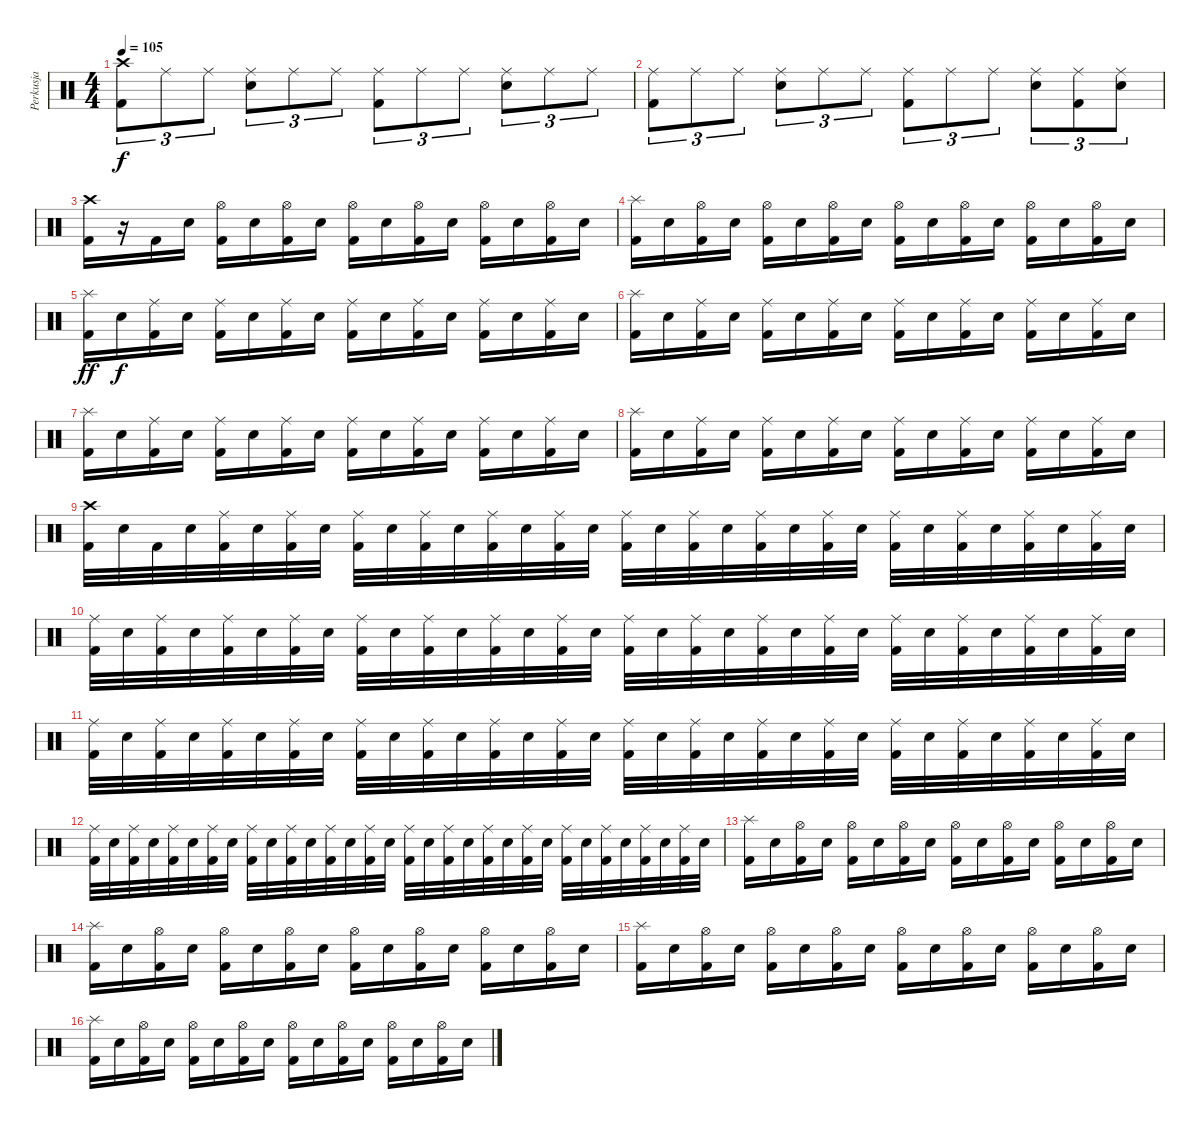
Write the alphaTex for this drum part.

\track ("Perkusja" "Perkusja") {instrument percussion}
\staff {score}
\articulation defaults
\ts (4 4)
\tempo 105
\clef neutral
\ks c
("Crash high (hit)" "Kick (hit) 2").8{tu (3 2) dy f} "Ride (middle)".8{tu (3 2)} "Ride (middle)".8{tu (3 2)} ("Ride (middle)" "Snare (hit) 2").8{tu (3 2)} "Ride (middle)".8{tu (3 2)} "Ride (middle)".8{tu (3 2)} ("Ride (middle)" "Kick (hit) 2").8{tu (3 2)} "Ride (middle)".8{tu (3 2)} "Ride (middle)".8{tu (3 2)} ("Ride (middle)" "Snare (hit) 2").8{tu (3 2)} "Ride (middle)".8{tu (3 2)} "Ride (middle)".8{tu (3 2)} |
("Ride (middle)" "Kick (hit) 2").8{tu (3 2)} "Ride (middle)".8{tu (3 2)} "Ride (middle)".8{tu (3 2)} ("Ride (middle)" "Snare (hit) 2").8{tu (3 2)} "Ride (middle)".8{tu (3 2)} "Ride (middle)".8{tu (3 2)} ("Ride (middle)" "Kick (hit) 2").8{tu (3 2)} "Ride (middle)".8{tu (3 2)} "Ride (middle)".8{tu (3 2)} ("Ride (middle)" "Snare (hit) 2").8{tu (3 2)} ("Ride (middle)" "Kick (hit) 2").8{tu (3 2)} ("Ride (middle)" "Snare (hit) 2").8{tu (3 2)} |
("Crash high (hit)" "Kick (hit) 2").16 r.16 "Kick (hit) 2".16 "Snare (hit) 2".16 ("Hi-Hat (open)" "Kick (hit) 2").16 "Snare (hit) 2".16 ("Hi-Hat (open)" "Kick (hit) 2").16 "Snare (hit) 2".16 ("Hi-Hat (open)" "Kick (hit) 2").16 "Snare (hit) 2".16 ("Hi-Hat (open)" "Kick (hit) 2").16 "Snare (hit) 2".16 ("Hi-Hat (open)" "Kick (hit) 2").16 "Snare (hit) 2".16 ("Hi-Hat (open)" "Kick (hit) 2").16 "Snare (hit) 2".16 |
("Splash (hit)" "Kick (hit) 2").16 "Snare (hit) 2".16 ("Hi-Hat (open)" "Kick (hit) 2").16 "Snare (hit) 2".16 ("Hi-Hat (open)" "Kick (hit) 2").16 "Snare (hit) 2".16 ("Hi-Hat (open)" "Kick (hit) 2").16 "Snare (hit) 2".16 ("Hi-Hat (open)" "Kick (hit) 2").16 "Snare (hit) 2".16 ("Hi-Hat (open)" "Kick (hit) 2").16 "Snare (hit) 2".16 ("Hi-Hat (open)" "Kick (hit) 2").16 "Snare (hit) 2".16 ("Hi-Hat (open)" "Kick (hit) 2").16 "Snare (hit) 2".16 |
("Splash (hit)" "Kick (hit) 2").16{dy ff} "Snare (hit) 2".16{dy f} ("Ride (middle)" "Kick (hit) 2").16 "Snare (hit) 2".16 ("Ride (middle)" "Kick (hit) 2").16 "Snare (hit) 2".16 ("Ride (middle)" "Kick (hit) 2").16 "Snare (hit) 2".16 ("Ride (middle)" "Kick (hit) 2").16 "Snare (hit) 2".16 ("Ride (middle)" "Kick (hit) 2").16 "Snare (hit) 2".16 ("Ride (middle)" "Kick (hit) 2").16 "Snare (hit) 2".16 ("Ride (middle)" "Kick (hit) 2").16 "Snare (hit) 2".16 |
("Splash (hit)" "Kick (hit) 2").16 "Snare (hit) 2".16 ("Ride (middle)" "Kick (hit) 2").16 "Snare (hit) 2".16 ("Ride (middle)" "Kick (hit) 2").16 "Snare (hit) 2".16 ("Ride (middle)" "Kick (hit) 2").16 "Snare (hit) 2".16 ("Ride (middle)" "Kick (hit) 2").16 "Snare (hit) 2".16 ("Ride (middle)" "Kick (hit) 2").16 "Snare (hit) 2".16 ("Ride (middle)" "Kick (hit) 2").16 "Snare (hit) 2".16 ("Ride (middle)" "Kick (hit) 2").16 "Snare (hit) 2".16 |
("Splash (hit)" "Kick (hit) 2").16 "Snare (hit) 2".16 ("Ride (middle)" "Kick (hit) 2").16 "Snare (hit) 2".16 ("Ride (middle)" "Kick (hit) 2").16 "Snare (hit) 2".16 ("Ride (middle)" "Kick (hit) 2").16 "Snare (hit) 2".16 ("Ride (middle)" "Kick (hit) 2").16 "Snare (hit) 2".16 ("Ride (middle)" "Kick (hit) 2").16 "Snare (hit) 2".16 ("Ride (middle)" "Kick (hit) 2").16 "Snare (hit) 2".16 ("Ride (middle)" "Kick (hit) 2").16 "Snare (hit) 2".16 |
("Splash (hit)" "Kick (hit) 2").16 "Snare (hit) 2".16 ("Ride (middle)" "Kick (hit) 2").16 "Snare (hit) 2".16 ("Ride (middle)" "Kick (hit) 2").16 "Snare (hit) 2".16 ("Ride (middle)" "Kick (hit) 2").16 "Snare (hit) 2".16 ("Ride (middle)" "Kick (hit) 2").16 "Snare (hit) 2".16 ("Ride (middle)" "Kick (hit) 2").16 "Snare (hit) 2".16 ("Ride (middle)" "Kick (hit) 2").16 "Snare (hit) 2".16 ("Ride (middle)" "Kick (hit) 2").16 "Snare (hit) 2".16 |
("Crash high (hit)" "Kick (hit) 2").32 "Snare (hit) 2".32 "Kick (hit) 2".32 "Snare (hit) 2".32 ("Ride (middle)" "Kick (hit) 2").32 "Snare (hit) 2".32 ("Ride (middle)" "Kick (hit) 2").32 "Snare (hit) 2".32 ("Ride (middle)" "Kick (hit) 2").32 "Snare (hit) 2".32 ("Ride (middle)" "Kick (hit) 2").32 "Snare (hit) 2".32 ("Ride (middle)" "Kick (hit) 2").32 "Snare (hit) 2".32 ("Ride (middle)" "Kick (hit) 2").32 "Snare (hit) 2".32 ("Ride (middle)" "Kick (hit) 2").32 "Snare (hit) 2".32 ("Ride (middle)" "Kick (hit) 2").32 "Snare (hit) 2".32 ("Ride (middle)" "Kick (hit) 2").32 "Snare (hit) 2".32 ("Ride (middle)" "Kick (hit) 2").32 "Snare (hit) 2".32 ("Ride (middle)" "Kick (hit) 2").32 "Snare (hit) 2".32 ("Ride (middle)" "Kick (hit) 2").32 "Snare (hit) 2".32 ("Ride (middle)" "Kick (hit) 2").32 "Snare (hit) 2".32 ("Ride (middle)" "Kick (hit) 2").32 "Snare (hit) 2".32 |
("Ride (middle)" "Kick (hit) 2").32 "Snare (hit) 2".32 ("Ride (middle)" "Kick (hit) 2").32 "Snare (hit) 2".32 ("Ride (middle)" "Kick (hit) 2").32 "Snare (hit) 2".32 ("Ride (middle)" "Kick (hit) 2").32 "Snare (hit) 2".32 ("Ride (middle)" "Kick (hit) 2").32 "Snare (hit) 2".32 ("Ride (middle)" "Kick (hit) 2").32 "Snare (hit) 2".32 ("Ride (middle)" "Kick (hit) 2").32 "Snare (hit) 2".32 ("Ride (middle)" "Kick (hit) 2").32 "Snare (hit) 2".32 ("Ride (middle)" "Kick (hit) 2").32 "Snare (hit) 2".32 ("Ride (middle)" "Kick (hit) 2").32 "Snare (hit) 2".32 ("Ride (middle)" "Kick (hit) 2").32 "Snare (hit) 2".32 ("Ride (middle)" "Kick (hit) 2").32 "Snare (hit) 2".32 ("Ride (middle)" "Kick (hit) 2").32 "Snare (hit) 2".32 ("Ride (middle)" "Kick (hit) 2").32 "Snare (hit) 2".32 ("Ride (middle)" "Kick (hit) 2").32 "Snare (hit) 2".32 ("Ride (middle)" "Kick (hit) 2").32 "Snare (hit) 2".32 |
("Ride (middle)" "Kick (hit) 2").32 "Snare (hit) 2".32 ("Ride (middle)" "Kick (hit) 2").32 "Snare (hit) 2".32 ("Ride (middle)" "Kick (hit) 2").32 "Snare (hit) 2".32 ("Ride (middle)" "Kick (hit) 2").32 "Snare (hit) 2".32 ("Ride (middle)" "Kick (hit) 2").32 "Snare (hit) 2".32 ("Ride (middle)" "Kick (hit) 2").32 "Snare (hit) 2".32 ("Ride (middle)" "Kick (hit) 2").32 "Snare (hit) 2".32 ("Ride (middle)" "Kick (hit) 2").32 "Snare (hit) 2".32 ("Ride (middle)" "Kick (hit) 2").32 "Snare (hit) 2".32 ("Ride (middle)" "Kick (hit) 2").32 "Snare (hit) 2".32 ("Ride (middle)" "Kick (hit) 2").32 "Snare (hit) 2".32 ("Ride (middle)" "Kick (hit) 2").32 "Snare (hit) 2".32 ("Ride (middle)" "Kick (hit) 2").32 "Snare (hit) 2".32 ("Ride (middle)" "Kick (hit) 2").32 "Snare (hit) 2".32 ("Ride (middle)" "Kick (hit) 2").32 "Snare (hit) 2".32 ("Ride (middle)" "Kick (hit) 2").32 "Snare (hit) 2".32 |
("Ride (middle)" "Kick (hit) 2").32 "Snare (hit) 2".32 ("Ride (middle)" "Kick (hit) 2").32 "Snare (hit) 2".32 ("Ride (middle)" "Kick (hit) 2").32 "Snare (hit) 2".32 ("Ride (middle)" "Kick (hit) 2").32 "Snare (hit) 2".32 ("Ride (middle)" "Kick (hit) 2").32 "Snare (hit) 2".32 ("Ride (middle)" "Kick (hit) 2").32 "Snare (hit) 2".32 ("Ride (middle)" "Kick (hit) 2").32 "Snare (hit) 2".32 ("Ride (middle)" "Kick (hit) 2").32 "Snare (hit) 2".32 ("Ride (middle)" "Kick (hit) 2").32 "Snare (hit) 2".32 ("Ride (middle)" "Kick (hit) 2").32 "Snare (hit) 2".32 ("Ride (middle)" "Kick (hit) 2").32 "Snare (hit) 2".32 ("Ride (middle)" "Kick (hit) 2").32 "Snare (hit) 2".32 ("Ride (middle)" "Kick (hit) 2").32 "Snare (hit) 2".32 ("Ride (middle)" "Kick (hit) 2").32 "Snare (hit) 2".32 ("Ride (middle)" "Kick (hit) 2").32 "Snare (hit) 2".32 ("Ride (middle)" "Kick (hit) 2").32 "Snare (hit) 2".32 |
("Splash (hit)" "Kick (hit) 2").16 "Snare (hit) 2".16 ("Hi-Hat (open)" "Kick (hit) 2").16 "Snare (hit) 2".16 ("Hi-Hat (open)" "Kick (hit) 2").16 "Snare (hit) 2".16 ("Hi-Hat (open)" "Kick (hit) 2").16 "Snare (hit) 2".16 ("Hi-Hat (open)" "Kick (hit) 2").16 "Snare (hit) 2".16 ("Hi-Hat (open)" "Kick (hit) 2").16 "Snare (hit) 2".16 ("Hi-Hat (open)" "Kick (hit) 2").16 "Snare (hit) 2".16 ("Hi-Hat (open)" "Kick (hit) 2").16 "Snare (hit) 2".16 |
("Splash (hit)" "Kick (hit) 2").16 "Snare (hit) 2".16 ("Hi-Hat (open)" "Kick (hit) 2").16 "Snare (hit) 2".16 ("Hi-Hat (open)" "Kick (hit) 2").16 "Snare (hit) 2".16 ("Hi-Hat (open)" "Kick (hit) 2").16 "Snare (hit) 2".16 ("Hi-Hat (open)" "Kick (hit) 2").16 "Snare (hit) 2".16 ("Hi-Hat (open)" "Kick (hit) 2").16 "Snare (hit) 2".16 ("Hi-Hat (open)" "Kick (hit) 2").16 "Snare (hit) 2".16 ("Hi-Hat (open)" "Kick (hit) 2").16 "Snare (hit) 2".16 |
("Splash (hit)" "Kick (hit) 2").16 "Snare (hit) 2".16 ("Hi-Hat (open)" "Kick (hit) 2").16 "Snare (hit) 2".16 ("Hi-Hat (open)" "Kick (hit) 2").16 "Snare (hit) 2".16 ("Hi-Hat (open)" "Kick (hit) 2").16 "Snare (hit) 2".16 ("Hi-Hat (open)" "Kick (hit) 2").16 "Snare (hit) 2".16 ("Hi-Hat (open)" "Kick (hit) 2").16 "Snare (hit) 2".16 ("Hi-Hat (open)" "Kick (hit) 2").16 "Snare (hit) 2".16 ("Hi-Hat (open)" "Kick (hit) 2").16 "Snare (hit) 2".16 |
("Splash (hit)" "Kick (hit) 2").16 "Snare (hit) 2".16 ("Hi-Hat (open)" "Kick (hit) 2").16 "Snare (hit) 2".16 ("Hi-Hat (open)" "Kick (hit) 2").16 "Snare (hit) 2".16 ("Hi-Hat (open)" "Kick (hit) 2").16 "Snare (hit) 2".16 ("Hi-Hat (open)" "Kick (hit) 2").16 "Snare (hit) 2".16 ("Hi-Hat (open)" "Kick (hit) 2").16 "Snare (hit) 2".16 ("Hi-Hat (open)" "Kick (hit) 2").16 "Snare (hit) 2".16 ("Hi-Hat (open)" "Kick (hit) 2").16 "Snare (hit) 2".16
